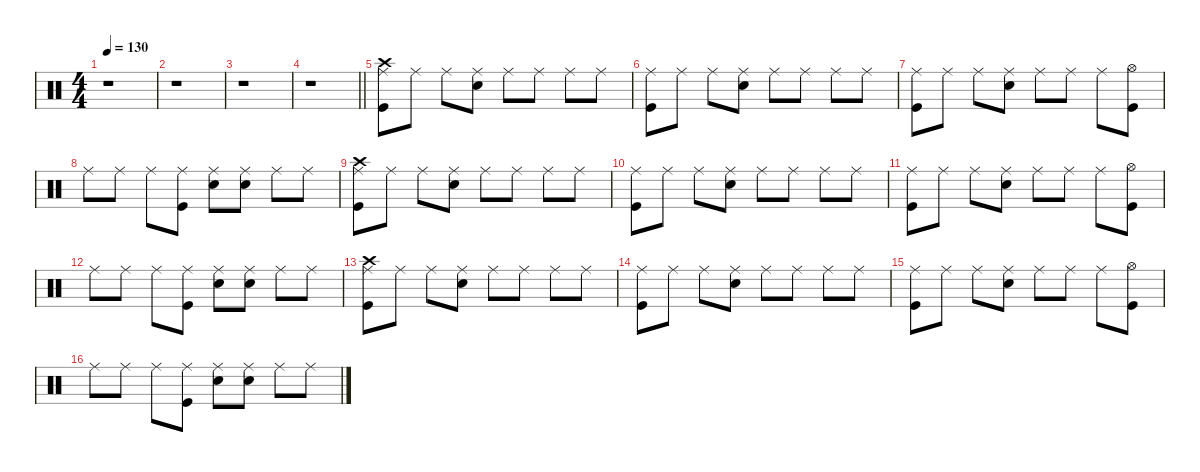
\defaultSystemsLayout 4
\hideDynamics
\bracketExtendMode nobrackets
\singleTrackTrackNamePolicy hidden
\multiTrackTrackNamePolicy hidden
\firstSystemTrackNameMode fullname
\firstSystemTrackNameOrientation horizontal
\otherSystemsTrackNameOrientation horizontal
\track ("Percussion" "drm.") {defaultSystemsLayout 4 instrument percussion}
\staff {score}
\articulation defaults
\ts (4 4)
\tempo 130
\clef neutral
\ks c
r.1{dy f beam Down} |
r.1{beam Down} |
r.1{beam Down} |
\barLineRight lightlight
r.1{beam Down} |
("Crash high (hit)" "Ride (middle)" "Kick (hit)").8{beam Down} "Ride (middle)".8{beam Down} "Ride (middle)".8{beam Down} ("Ride (middle)" "Snare (hit) 2").8{beam Down} "Ride (middle)".8{beam Down} "Ride (middle)".8{beam Down} "Ride (middle)".8{beam Down} "Ride (middle)".8{beam Down} |
("Ride (middle)" "Kick (hit)").8{beam Down} "Ride (middle)".8{beam Down} "Ride (middle)".8{beam Down} ("Ride (middle)" "Snare (hit) 2").8{beam Down} "Ride (middle)".8{beam Down} "Ride (middle)".8{beam Down} "Ride (middle)".8{beam Down} "Ride (middle)".8{beam Down} |
("Ride (middle)" "Kick (hit)").8{beam Down} "Ride (middle)".8{beam Down} "Ride (middle)".8{beam Down} ("Ride (middle)" "Snare (hit) 2").8{beam Down} "Ride (middle)".8{beam Down} "Ride (middle)".8{beam Down} "Ride (middle)".8{beam Down} ("Kick (hit)" "Hi-Hat (open)").8{beam Down} |
"Ride (middle)".8{dy mf beam Down} "Ride (middle)".8{dy f beam Down} "Ride (middle)".8{beam Down} ("Ride (middle)" "Kick (hit)").8{beam Down} ("Ride (middle)" "Snare (hit) 2").8{beam Down} ("Ride (middle)" "Snare (hit) 2").8{beam Down} "Ride (middle)".8{beam Down} "Ride (middle)".8{beam Down} |
("Crash high (hit)" "Ride (middle)" "Kick (hit)").8{beam Down} "Ride (middle)".8{beam Down} "Ride (middle)".8{beam Down} ("Ride (middle)" "Snare (hit) 2").8{beam Down} "Ride (middle)".8{beam Down} "Ride (middle)".8{beam Down} "Ride (middle)".8{beam Down} "Ride (middle)".8{beam Down} |
("Ride (middle)" "Kick (hit)").8{beam Down} "Ride (middle)".8{beam Down} "Ride (middle)".8{beam Down} ("Ride (middle)" "Snare (hit) 2").8{beam Down} "Ride (middle)".8{beam Down} "Ride (middle)".8{beam Down} "Ride (middle)".8{beam Down} "Ride (middle)".8{beam Down} |
("Ride (middle)" "Kick (hit)").8{beam Down} "Ride (middle)".8{beam Down} "Ride (middle)".8{beam Down} ("Ride (middle)" "Snare (hit) 2").8{beam Down} "Ride (middle)".8{beam Down} "Ride (middle)".8{beam Down} "Ride (middle)".8{beam Down} ("Kick (hit)" "Hi-Hat (open)").8{beam Down} |
"Ride (middle)".8{dy mf beam Down} "Ride (middle)".8{dy f beam Down} "Ride (middle)".8{beam Down} ("Ride (middle)" "Kick (hit)").8{beam Down} ("Ride (middle)" "Snare (hit) 2").8{beam Down} ("Ride (middle)" "Snare (hit) 2").8{beam Down} "Ride (middle)".8{beam Down} "Ride (middle)".8{beam Down} |
("Crash high (hit)" "Ride (middle)" "Kick (hit)").8{beam Down} "Ride (middle)".8{beam Down} "Ride (middle)".8{beam Down} ("Ride (middle)" "Snare (hit) 2").8{beam Down} "Ride (middle)".8{beam Down} "Ride (middle)".8{beam Down} "Ride (middle)".8{beam Down} "Ride (middle)".8{beam Down} |
("Ride (middle)" "Kick (hit)").8{beam Down} "Ride (middle)".8{beam Down} "Ride (middle)".8{beam Down} ("Ride (middle)" "Snare (hit) 2").8{beam Down} "Ride (middle)".8{beam Down} "Ride (middle)".8{beam Down} "Ride (middle)".8{beam Down} "Ride (middle)".8{beam Down} |
("Ride (middle)" "Kick (hit)").8{beam Down} "Ride (middle)".8{beam Down} "Ride (middle)".8{beam Down} ("Ride (middle)" "Snare (hit) 2").8{beam Down} "Ride (middle)".8{beam Down} "Ride (middle)".8{beam Down} "Ride (middle)".8{beam Down} ("Kick (hit)" "Hi-Hat (open)").8{beam Down} |
"Ride (middle)".8{dy mf beam Down} "Ride (middle)".8{dy f beam Down} "Ride (middle)".8{beam Down} ("Ride (middle)" "Kick (hit)").8{beam Down} ("Ride (middle)" "Snare (hit) 2").8{beam Down} ("Ride (middle)" "Snare (hit) 2").8{beam Down} "Ride (middle)".8{beam Down} "Ride (middle)".8{beam Down}
